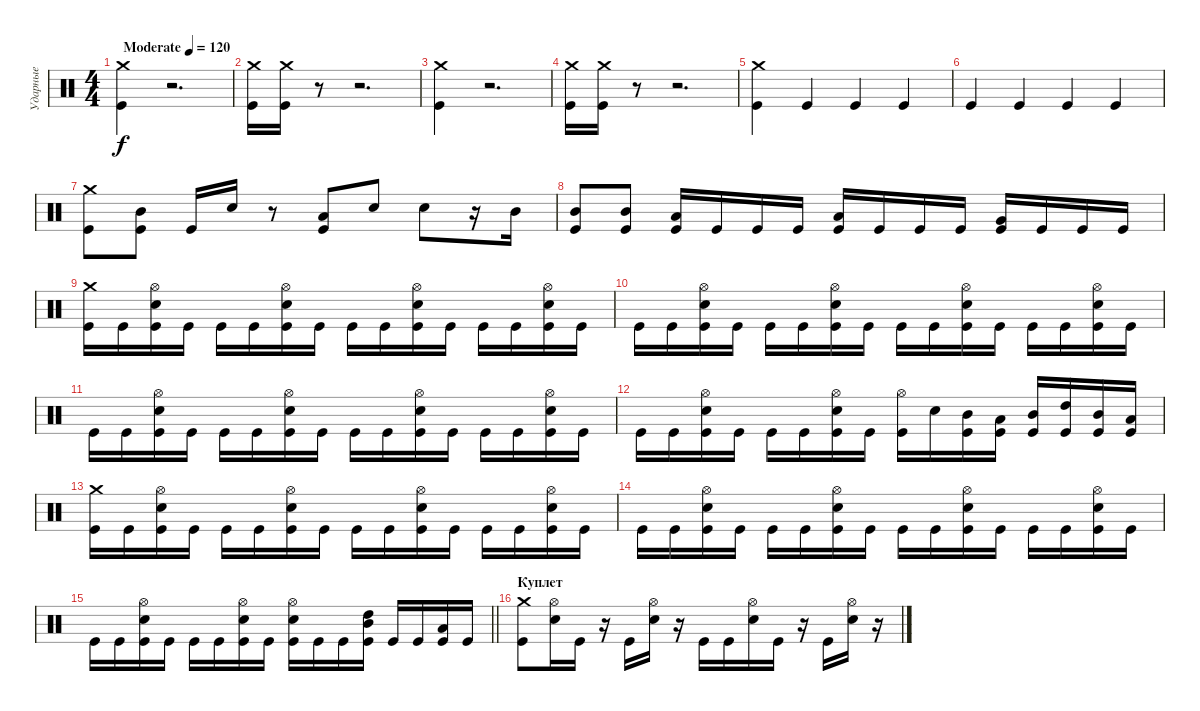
\track ("Ударные" "Ударные") {instrument percussion}
\staff {score}
\articulation defaults
\ts (4 4)
\tempo (120 "Moderate")
\clef neutral
\ks c
("Kick (hit)" "Crash medium (hit)").4{dy f} r.2{d} |
("Kick (hit)" "Crash medium (hit)").16 ("Kick (hit)" "Crash medium (hit)").16 r.8 r.2{d} |
("Kick (hit)" "Crash medium (hit)").4 r.2{d} |
("Kick (hit)" "Crash medium (hit)").16 ("Kick (hit)" "Crash medium (hit)").16 r.8 r.2{d} |
("Kick (hit)" "Crash medium (hit)").4 "Kick (hit)".4 "Kick (hit)".4 "Kick (hit)".4 |
"Kick (hit)".4 "Kick (hit)".4 "Kick (hit)".4 "Kick (hit)".4 |
("Kick (hit)" "Crash medium (hit)").8 ("Kick (hit)" "Mid Tom (hit)").8 "Kick (hit)".16 "Snare (hit) 2".16 r.8 ("Kick (hit)" "Low Tom (hit)").8 "Snare (hit) 2".8 "Snare (hit) 2".8 r.16 "Mid Tom (hit)".16 |
("Kick (hit)" "Mid Tom (hit)").8 ("Kick (hit)" "Mid Tom (hit)").8 ("Kick (hit)" "Low Tom (hit)").16 "Kick (hit)".16 "Kick (hit)".16 "Kick (hit)".16 ("Kick (hit)" "Low Tom (hit)").16 "Kick (hit)".16 "Kick (hit)".16 "Kick (hit)".16 ("Kick (hit)" "Very Low Tom (hit)").16 "Kick (hit)".16 "Kick (hit)".16 "Kick (hit)".16 |
("Kick (hit)" "Crash medium (hit)").16 "Kick (hit)".16 ("Kick (hit)" "Snare (hit) 2" "Hi-Hat (open)").16 "Kick (hit)".16 "Kick (hit)".16 "Kick (hit)".16 ("Kick (hit)" "Snare (hit) 2" "Hi-Hat (open)").16 "Kick (hit)".16 "Kick (hit)".16 "Kick (hit)".16 ("Kick (hit)" "Snare (hit) 2" "Hi-Hat (open)").16 "Kick (hit)".16 "Kick (hit)".16 "Kick (hit)".16 ("Kick (hit)" "Snare (hit) 2" "Hi-Hat (open)").16 "Kick (hit)".16 |
"Kick (hit)".16 "Kick (hit)".16 ("Kick (hit)" "Snare (hit) 2" "Hi-Hat (open)").16 "Kick (hit)".16 "Kick (hit)".16 "Kick (hit)".16 ("Kick (hit)" "Snare (hit) 2" "Hi-Hat (open)").16 "Kick (hit)".16 "Kick (hit)".16 "Kick (hit)".16 ("Kick (hit)" "Snare (hit) 2" "Hi-Hat (open)").16 "Kick (hit)".16 "Kick (hit)".16 "Kick (hit)".16 ("Kick (hit)" "Snare (hit) 2" "Hi-Hat (open)").16 "Kick (hit)".16 |
"Kick (hit)".16 "Kick (hit)".16 ("Kick (hit)" "Snare (hit) 2" "Hi-Hat (open)").16 "Kick (hit)".16 "Kick (hit)".16 "Kick (hit)".16 ("Kick (hit)" "Snare (hit) 2" "Hi-Hat (open)").16 "Kick (hit)".16 "Kick (hit)".16 "Kick (hit)".16 ("Kick (hit)" "Snare (hit) 2" "Hi-Hat (open)").16 "Kick (hit)".16 "Kick (hit)".16 "Kick (hit)".16 ("Kick (hit)" "Snare (hit) 2" "Hi-Hat (open)").16 "Kick (hit)".16 |
"Kick (hit)".16 "Kick (hit)".16 ("Kick (hit)" "Snare (hit) 2" "Hi-Hat (open)").16 "Kick (hit)".16 "Kick (hit)".16 "Kick (hit)".16 ("Kick (hit)" "Snare (hit) 2" "Hi-Hat (open)").16 "Kick (hit)".16 ("Kick (hit)" "Hi-Hat (open)").16 "Snare (hit) 2".16 ("Kick (hit)" "Mid Tom (hit)").16 ("Kick (hit)" "Low Tom (hit)").16 ("Kick (hit)" "Mid Tom (hit)").16 ("Kick (hit)" "High Tom (hit)").16 ("Kick (hit)" "Mid Tom (hit)").16 ("Kick (hit)" "Low Tom (hit)").16 |
("Kick (hit)" "Crash medium (hit)").16 "Kick (hit)".16 ("Kick (hit)" "Snare (hit) 2" "Hi-Hat (open)").16 "Kick (hit)".16 "Kick (hit)".16 "Kick (hit)".16 ("Kick (hit)" "Snare (hit) 2" "Hi-Hat (open)").16 "Kick (hit)".16 "Kick (hit)".16 "Kick (hit)".16 ("Kick (hit)" "Snare (hit) 2" "Hi-Hat (open)").16 "Kick (hit)".16 "Kick (hit)".16 "Kick (hit)".16 ("Kick (hit)" "Snare (hit) 2" "Hi-Hat (open)").16 "Kick (hit)".16 |
"Kick (hit)".16 "Kick (hit)".16 ("Kick (hit)" "Snare (hit) 2" "Hi-Hat (open)").16 "Kick (hit)".16 "Kick (hit)".16 "Kick (hit)".16 ("Kick (hit)" "Snare (hit) 2" "Hi-Hat (open)").16 "Kick (hit)".16 "Kick (hit)".16 "Kick (hit)".16 ("Kick (hit)" "Snare (hit) 2" "Hi-Hat (open)").16 "Kick (hit)".16 "Kick (hit)".16 "Kick (hit)".16 ("Kick (hit)" "Snare (hit) 2" "Hi-Hat (open)").16 "Kick (hit)".16 |
\barLineRight lightlight "Kick (hit)".16 "Kick (hit)".16
("Kick (hit)" "Snare (hit) 2" "Hi-Hat (open)").16 "Kick (hit)".16 "Kick (hit)".16 "Kick (hit)".16 ("Kick (hit)" "Snare (hit) 2" "Hi-Hat (open)").16 "Kick (hit)".16 ("Kick (hit)" "Snare (hit) 2" "Hi-Hat (open)").16 "Kick (hit)".16 "Kick (hit)".16 ("Kick (hit)" "Mid Tom (hit)" "High Tom (hit)").16{bd 60} "Kick (hit)".16 "Kick (hit)".16 ("Kick (hit)" "Low Tom (hit)").16 "Kick (hit)".16 |
\section ("" "Куплет")
("Kick (hit)" "Crash medium (hit)").8 ("Snare (hit) 2" "Hi-Hat (open)").16 "Kick (hit)".16 r.16 "Kick (hit)".16 ("Snare (hit) 2" "Hi-Hat (open)").16 r.16 "Kick (hit)".16 "Kick (hit)".16 ("Snare (hit) 2" "Hi-Hat (open)").16 "Kick (hit)".16 r.16 "Kick (hit)".16 ("Snare (hit) 2" "Hi-Hat (open)").16 r.16
